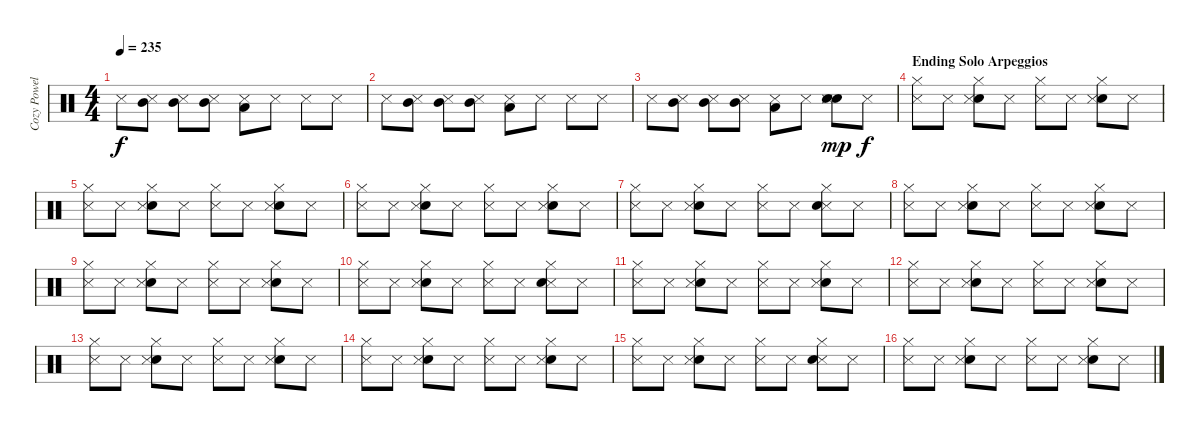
\track ("Cozy Powell" "Cozy Powel") {instrument percussion}
\staff {score}
\articulation defaults
\ts (4 4)
\tempo 235
\clef neutral
\ks c "Metronome (hit)".8{dy f}
("Mid Tom (hit)" "Metronome (hit)").8 ("Mid Tom (hit)" "Metronome (hit)").8 ("Mid Tom (hit)" "Metronome (hit)").8 ("Low Tom (hit)" "Metronome (hit)").8 "Metronome (hit)".8 "Metronome (hit)".8 "Metronome (hit)".8 |
"Metronome (hit)".8 ("Metronome (hit)" "Mid Tom (hit)").8 ("Mid Tom (hit)" "Metronome (hit)").8 ("Mid Tom (hit)" "Metronome (hit)").8 ("Low Tom (hit)" "Metronome (hit)").8 "Metronome (hit)".8 "Metronome (hit)".8 "Metronome (hit)".8 |
"Metronome (hit)".8 ("Metronome (hit)" "Mid Tom (hit)").8 ("Mid Tom (hit)" "Metronome (hit)").8 ("Mid Tom (hit)" "Metronome (hit)").8 ("Metronome (hit)" "Low Tom (hit)").8 "Metronome (hit)".8 ("Electric Snare (hit)" "Electric Snare (hit)" "Metronome (hit)").8{dy mp} "Metronome (hit)".8{dy f} |
\section ("" "Ending Solo Arpeggios")
("Hi-Hat (closed)" "Metronome (hit)").8 "Metronome (hit)".8 ("Electric Snare (hit)" "Hi-Hat (closed)" "Metronome (hit)").8 "Metronome (hit)".8 ("Hi-Hat (closed)" "Metronome (hit)").8 "Metronome (hit)".8 ("Electric Snare (hit)" "Metronome (hit)" "Hi-Hat (closed)").8 "Metronome (hit)".8 |
("Metronome (hit)" "Hi-Hat (closed)").8 "Metronome (hit)".8 ("Electric Snare (hit)" "Metronome (hit)" "Hi-Hat (closed)").8 "Metronome (hit)".8 ("Hi-Hat (closed)" "Metronome (hit)").8 "Metronome (hit)".8 ("Electric Snare (hit)" "Metronome (hit)" "Hi-Hat (closed)").8 "Metronome (hit)".8 |
("Hi-Hat (closed)" "Metronome (hit)").8 "Metronome (hit)".8 ("Electric Snare (hit)" "Hi-Hat (closed)" "Metronome (hit)").8 "Metronome (hit)".8 ("Metronome (hit)" "Hi-Hat (closed)").8 "Metronome (hit)".8 ("Hi-Hat (closed)" "Electric Snare (hit)" "Metronome (hit)").8 "Metronome (hit)".8 |
("Metronome (hit)" "Hi-Hat (closed)").8 "Metronome (hit)".8 ("Electric Snare (hit)" "Metronome (hit)" "Hi-Hat (closed)").8 "Metronome (hit)".8 ("Hi-Hat (closed)" "Metronome (hit)").8 "Metronome (hit)".8 ("Metronome (hit)" "Electric Snare (hit)" "Hi-Hat (closed)").8 "Metronome (hit)".8 |
("Metronome (hit)" "Hi-Hat (closed)").8 "Metronome (hit)".8 ("Hi-Hat (closed)" "Electric Snare (hit)" "Metronome (hit)").8 "Metronome (hit)".8 ("Hi-Hat (closed)" "Metronome (hit)").8 "Metronome (hit)".8 ("Electric Snare (hit)" "Metronome (hit)" "Hi-Hat (closed)").8 "Metronome (hit)".8 |
("Hi-Hat (closed)" "Metronome (hit)").8 "Metronome (hit)".8 ("Electric Snare (hit)" "Metronome (hit)" "Hi-Hat (closed)").8 "Metronome (hit)".8 ("Metronome (hit)" "Hi-Hat (closed)").8 "Metronome (hit)".8 ("Electric Snare (hit)" "Metronome (hit)" "Hi-Hat (closed)").8 "Metronome (hit)".8 |
("Metronome (hit)" "Hi-Hat (closed)").8 "Metronome (hit)".8 ("Electric Snare (hit)" "Hi-Hat (closed)" "Metronome (hit)").8 "Metronome (hit)".8 ("Metronome (hit)" "Hi-Hat (closed)").8 "Metronome (hit)".8 ("Metronome (hit)" "Electric Snare (hit)" "Hi-Hat (closed)").8 "Metronome (hit)".8 |
("Metronome (hit)" "Hi-Hat (closed)").8 "Metronome (hit)".8 ("Electric Snare (hit)" "Hi-Hat (closed)" "Metronome (hit)").8 "Metronome (hit)".8 ("Hi-Hat (closed)" "Metronome (hit)").8 "Metronome (hit)".8 ("Hi-Hat (closed)" "Electric Snare (hit)" "Metronome (hit)").8 "Metronome (hit)".8 |
("Hi-Hat (closed)" "Metronome (hit)").8 "Metronome (hit)".8 ("Electric Snare (hit)" "Hi-Hat (closed)" "Metronome (hit)").8 "Metronome (hit)".8 ("Hi-Hat (closed)" "Metronome (hit)").8 "Metronome (hit)".8 ("Electric Snare (hit)" "Metronome (hit)" "Hi-Hat (closed)").8 "Metronome (hit)".8 |
("Metronome (hit)" "Hi-Hat (closed)").8 "Metronome (hit)".8 ("Electric Snare (hit)" "Metronome (hit)" "Hi-Hat (closed)").8 "Metronome (hit)".8 ("Hi-Hat (closed)" "Metronome (hit)").8 "Metronome (hit)".8 ("Electric Snare (hit)" "Metronome (hit)" "Hi-Hat (closed)").8 "Metronome (hit)".8 |
("Hi-Hat (closed)" "Metronome (hit)").8 "Metronome (hit)".8 ("Electric Snare (hit)" "Hi-Hat (closed)" "Metronome (hit)").8 "Metronome (hit)".8 ("Metronome (hit)" "Hi-Hat (closed)").8 "Metronome (hit)".8 ("Hi-Hat (closed)" "Electric Snare (hit)" "Metronome (hit)").8 "Metronome (hit)".8 |
("Metronome (hit)" "Hi-Hat (closed)").8 "Metronome (hit)".8 ("Electric Snare (hit)" "Metronome (hit)" "Hi-Hat (closed)").8 "Metronome (hit)".8 ("Hi-Hat (closed)" "Metronome (hit)").8 "Metronome (hit)".8 ("Metronome (hit)" "Electric Snare (hit)" "Hi-Hat (closed)").8 "Metronome (hit)".8 |
("Metronome (hit)" "Hi-Hat (closed)").8 "Metronome (hit)".8 ("Hi-Hat (closed)" "Electric Snare (hit)" "Metronome (hit)").8 "Metronome (hit)".8 ("Hi-Hat (closed)" "Metronome (hit)").8 "Metronome (hit)".8 ("Electric Snare (hit)" "Metronome (hit)" "Hi-Hat (closed)").8 "Metronome (hit)".8
